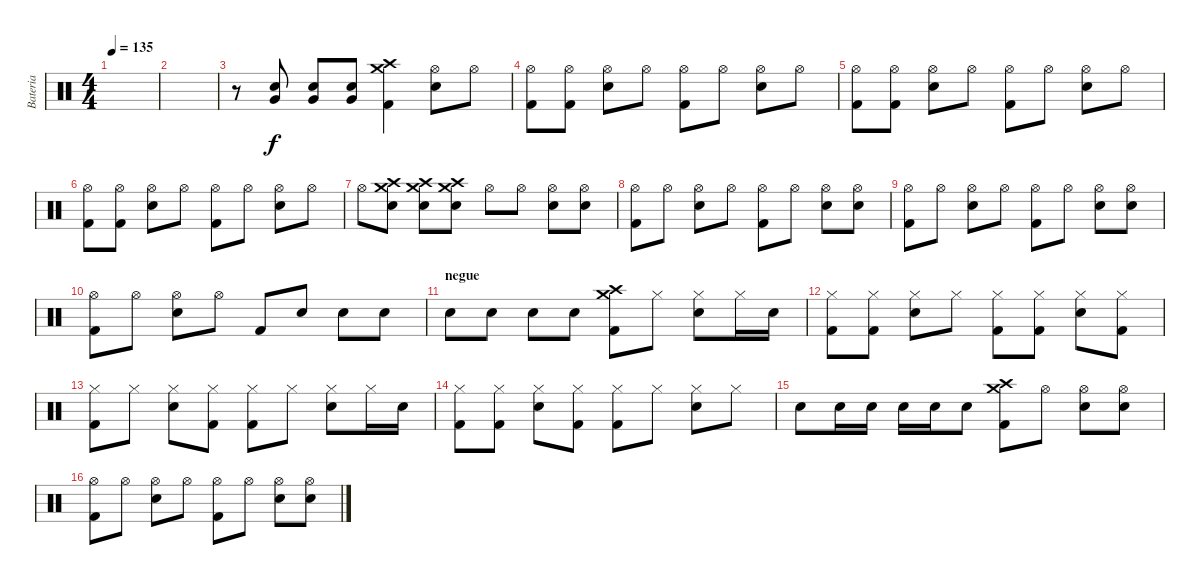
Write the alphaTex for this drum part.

\track ("Bateria" "Bateria") {instrument percussion}
\staff {score}
\articulation defaults
\ts (4 4)
\tempo 135
\clef neutral
\ks c
|
|
r.8 ("Very Low Tom (hit)" "Electric Snare (hit)").8 ("Very Low Tom (hit)" "Electric Snare (hit)").8 ("Very Low Tom (hit)" "Electric Snare (hit)").8 ("Crash medium (hit)" "Crash high (hit)" "Kick (hit) 2").4{dy f} ("Hi-Hat (open)" "Electric Snare (hit)").8 "Hi-Hat (open)".8 |
("Hi-Hat (open)" "Kick (hit) 2").8 ("Hi-Hat (open)" "Kick (hit) 2").8 ("Hi-Hat (open)" "Electric Snare (hit)").8 "Hi-Hat (open)".8 ("Hi-Hat (open)" "Kick (hit) 2").8 "Hi-Hat (open)".8 ("Hi-Hat (open)" "Electric Snare (hit)").8 "Hi-Hat (open)".8 |
("Hi-Hat (open)" "Kick (hit) 2").8 ("Hi-Hat (open)" "Kick (hit) 2").8 ("Hi-Hat (open)" "Electric Snare (hit)").8 "Hi-Hat (open)".8 ("Hi-Hat (open)" "Kick (hit) 2").8 "Hi-Hat (open)".8 ("Hi-Hat (open)" "Electric Snare (hit)").8 "Hi-Hat (open)".8 |
("Hi-Hat (open)" "Kick (hit) 2").8 ("Hi-Hat (open)" "Kick (hit) 2").8 ("Hi-Hat (open)" "Electric Snare (hit)").8 "Hi-Hat (open)".8 ("Hi-Hat (open)" "Kick (hit) 2").8 "Hi-Hat (open)".8 ("Hi-Hat (open)" "Electric Snare (hit)").8 "Hi-Hat (open)".8 |
"Hi-Hat (open)".8 ("Crash high (hit)" "Crash medium (hit)" "Electric Snare (hit)").8 ("Crash high (hit)" "Crash medium (hit)" "Electric Snare (hit)").8 ("Crash high (hit)" "Crash medium (hit)" "Electric Snare (hit)").8 "Hi-Hat (open)".8 "Hi-Hat (open)".8 ("Hi-Hat (open)" "Electric Snare (hit)").8 ("Hi-Hat (open)" "Electric Snare (hit)").8 |
("Hi-Hat (open)" "Kick (hit) 2").8 "Hi-Hat (open)".8 ("Hi-Hat (open)" "Electric Snare (hit)").8 "Hi-Hat (open)".8 ("Hi-Hat (open)" "Kick (hit) 2").8 "Hi-Hat (open)".8 ("Hi-Hat (open)" "Electric Snare (hit)").8 ("Hi-Hat (open)" "Electric Snare (hit)").8 |
("Hi-Hat (open)" "Kick (hit) 2").8 "Hi-Hat (open)".8 ("Hi-Hat (open)" "Electric Snare (hit)").8 "Hi-Hat (open)".8 ("Hi-Hat (open)" "Kick (hit) 2").8 "Hi-Hat (open)".8 ("Hi-Hat (open)" "Electric Snare (hit)").8 ("Hi-Hat (open)" "Electric Snare (hit)").8 |
("Hi-Hat (open)" "Kick (hit) 2").8 "Hi-Hat (open)".8 ("Hi-Hat (open)" "Electric Snare (hit)").8 "Hi-Hat (open)".8 "Kick (hit) 2".8 "Electric Snare (hit)".8 "Electric Snare (hit)".8 "Electric Snare (hit)".8 |
\section ("" "negue")
"Electric Snare (hit)".8 "Electric Snare (hit)".8 "Electric Snare (hit)".8 "Electric Snare (hit)".8 ("Crash medium (hit)" "Crash high (hit)" "Kick (hit) 2").8 "Hi-Hat (closed)".8 ("Hi-Hat (closed)" "Electric Snare (hit)").8 "Hi-Hat (closed)".16 "Electric Snare (hit)".16 |
("Hi-Hat (closed)" "Kick (hit) 2").8 ("Hi-Hat (closed)" "Kick (hit) 2").8 ("Hi-Hat (closed)" "Electric Snare (hit)").8 "Hi-Hat (closed)".8 ("Hi-Hat (closed)" "Kick (hit) 2").8 ("Hi-Hat (closed)" "Kick (hit) 2").8 ("Hi-Hat (closed)" "Electric Snare (hit)").8 ("Hi-Hat (closed)" "Kick (hit) 2").8 |
("Hi-Hat (closed)" "Kick (hit) 2").8 "Hi-Hat (closed)".8 ("Hi-Hat (closed)" "Electric Snare (hit)").8 ("Hi-Hat (closed)" "Kick (hit) 2").8 ("Hi-Hat (closed)" "Kick (hit) 2").8 "Hi-Hat (closed)".8 ("Hi-Hat (closed)" "Electric Snare (hit)").8 "Hi-Hat (closed)".16 "Electric Snare (hit)".16 |
("Hi-Hat (closed)" "Kick (hit) 2").8 ("Hi-Hat (closed)" "Kick (hit) 2").8 ("Hi-Hat (closed)" "Electric Snare (hit)").8 ("Hi-Hat (closed)" "Kick (hit) 2").8 ("Hi-Hat (closed)" "Kick (hit) 2").8 "Hi-Hat (closed)".8 ("Hi-Hat (closed)" "Electric Snare (hit)").8 "Hi-Hat (closed)".8 |
"Electric Snare (hit)".8 "Electric Snare (hit)".16 "Electric Snare (hit)".16 "Electric Snare (hit)".16 "Electric Snare (hit)".16 "Electric Snare (hit)".8 ("Crash medium (hit)" "Crash high (hit)" "Kick (hit) 2").8 "Hi-Hat (open)".8 ("Hi-Hat (open)" "Electric Snare (hit)").8 ("Hi-Hat (open)" "Electric Snare (hit)").8 |
("Hi-Hat (open)" "Kick (hit) 2").8 "Hi-Hat (open)".8 ("Hi-Hat (open)" "Electric Snare (hit)").8 "Hi-Hat (open)".8 ("Hi-Hat (open)" "Kick (hit) 2").8 "Hi-Hat (open)".8 ("Hi-Hat (open)" "Electric Snare (hit)").8 ("Hi-Hat (open)" "Electric Snare (hit)").8
